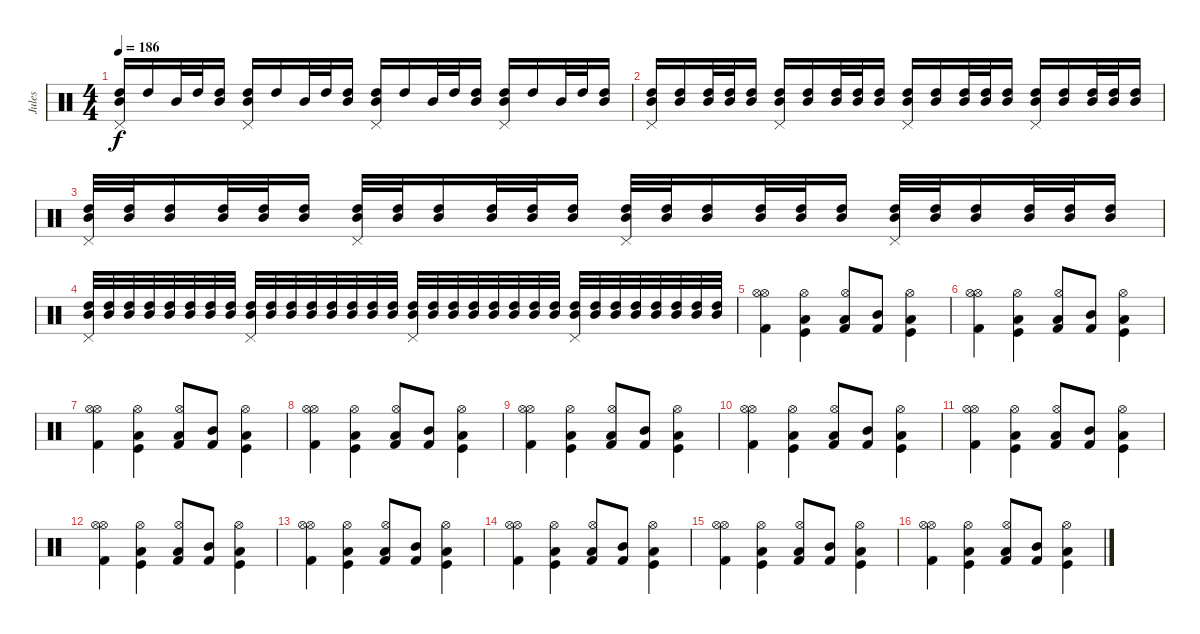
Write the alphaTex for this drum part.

\track ("Jules" "Jules") {instrument percussion}
\staff {score}
\articulation defaults
\ts (4 4)
\tempo 186
\clef neutral
\ks c
("Pedal Hi-Hat (hit)" "Mid Tom (hit)" "High Tom (hit)").16{dy f} "High Tom (hit)".16 "Mid Tom (hit)".32 "High Tom (hit)".32 ("High Tom (hit)" "Mid Tom (hit)").16 ("Pedal Hi-Hat (hit)" "Mid Tom (hit)" "High Tom (hit)").16 "High Tom (hit)".16 "Mid Tom (hit)".32 "High Tom (hit)".32 ("High Tom (hit)" "Mid Tom (hit)").16 ("Pedal Hi-Hat (hit)" "Mid Tom (hit)" "High Tom (hit)").16 "High Tom (hit)".16 "Mid Tom (hit)".32 "High Tom (hit)".32 ("High Tom (hit)" "Mid Tom (hit)").16 ("Pedal Hi-Hat (hit)" "Mid Tom (hit)" "High Tom (hit)").16 "High Tom (hit)".16 "Mid Tom (hit)".32 "High Tom (hit)".32 ("High Tom (hit)" "Mid Tom (hit)").16 |
("Pedal Hi-Hat (hit)" "Mid Tom (hit)" "High Tom (hit)").16 ("High Tom (hit)" "Mid Tom (hit)").16 ("Mid Tom (hit)" "High Tom (hit)").32 ("Mid Tom (hit)" "High Tom (hit)").32 ("High Tom (hit)" "Mid Tom (hit)").16 ("Pedal Hi-Hat (hit)" "Mid Tom (hit)" "High Tom (hit)").16 ("High Tom (hit)" "Mid Tom (hit)").16 ("Mid Tom (hit)" "High Tom (hit)").32 ("Mid Tom (hit)" "High Tom (hit)").32 ("High Tom (hit)" "Mid Tom (hit)").16 ("Pedal Hi-Hat (hit)" "Mid Tom (hit)" "High Tom (hit)").16 ("High Tom (hit)" "Mid Tom (hit)").16 ("Mid Tom (hit)" "High Tom (hit)").32 ("Mid Tom (hit)" "High Tom (hit)").32 ("High Tom (hit)" "Mid Tom (hit)").16 ("Pedal Hi-Hat (hit)" "Mid Tom (hit)" "High Tom (hit)").16 ("High Tom (hit)" "Mid Tom (hit)").16 ("Mid Tom (hit)" "High Tom (hit)").32 ("Mid Tom (hit)" "High Tom (hit)").32 ("High Tom (hit)" "Mid Tom (hit)").16 |
("Pedal Hi-Hat (hit)" "Mid Tom (hit)" "High Tom (hit)").32 ("Mid Tom (hit)" "High Tom (hit)").32 ("High Tom (hit)" "Mid Tom (hit)").16 ("Mid Tom (hit)" "High Tom (hit)").32 ("Mid Tom (hit)" "High Tom (hit)").32 ("High Tom (hit)" "Mid Tom (hit)").16 ("Pedal Hi-Hat (hit)" "Mid Tom (hit)" "High Tom (hit)").32 ("Mid Tom (hit)" "High Tom (hit)").32 ("High Tom (hit)" "Mid Tom (hit)").16 ("Mid Tom (hit)" "High Tom (hit)").32 ("Mid Tom (hit)" "High Tom (hit)").32 ("High Tom (hit)" "Mid Tom (hit)").16 ("Pedal Hi-Hat (hit)" "Mid Tom (hit)" "High Tom (hit)").32 ("Mid Tom (hit)" "High Tom (hit)").32 ("High Tom (hit)" "Mid Tom (hit)").16 ("Mid Tom (hit)" "High Tom (hit)").32 ("Mid Tom (hit)" "High Tom (hit)").32 ("High Tom (hit)" "Mid Tom (hit)").16 ("Pedal Hi-Hat (hit)" "Mid Tom (hit)" "High Tom (hit)").32 ("Mid Tom (hit)" "High Tom (hit)").32 ("High Tom (hit)" "Mid Tom (hit)").16 ("Mid Tom (hit)" "High Tom (hit)").32 ("Mid Tom (hit)" "High Tom (hit)").32 ("High Tom (hit)" "Mid Tom (hit)").16 |
("Pedal Hi-Hat (hit)" "Mid Tom (hit)" "High Tom (hit)").32 ("High Tom (hit)" "Mid Tom (hit)").32 ("Mid Tom (hit)" "High Tom (hit)").32 ("High Tom (hit)" "Mid Tom (hit)").32 ("Mid Tom (hit)" "High Tom (hit)").32 ("High Tom (hit)" "Mid Tom (hit)").32 ("Mid Tom (hit)" "High Tom (hit)").32 ("High Tom (hit)" "Mid Tom (hit)").32 ("Pedal Hi-Hat (hit)" "Mid Tom (hit)" "High Tom (hit)").32 ("High Tom (hit)" "Mid Tom (hit)").32 ("Mid Tom (hit)" "High Tom (hit)").32 ("High Tom (hit)" "Mid Tom (hit)").32 ("Mid Tom (hit)" "High Tom (hit)").32 ("High Tom (hit)" "Mid Tom (hit)").32 ("Mid Tom (hit)" "High Tom (hit)").32 ("High Tom (hit)" "Mid Tom (hit)").32 ("Pedal Hi-Hat (hit)" "Mid Tom (hit)" "High Tom (hit)").32 ("High Tom (hit)" "Mid Tom (hit)").32 ("Mid Tom (hit)" "High Tom (hit)").32 ("High Tom (hit)" "Mid Tom (hit)").32 ("Mid Tom (hit)" "High Tom (hit)").32 ("High Tom (hit)" "Mid Tom (hit)").32 ("Mid Tom (hit)" "High Tom (hit)").32 ("High Tom (hit)" "Mid Tom (hit)").32 ("Pedal Hi-Hat (hit)" "Mid Tom (hit)" "High Tom (hit)").32 ("High Tom (hit)" "Mid Tom (hit)").32 ("Mid Tom (hit)" "High Tom (hit)").32 ("High Tom (hit)" "Mid Tom (hit)").32 ("Mid Tom (hit)" "High Tom (hit)").32 ("High Tom (hit)" "Mid Tom (hit)").32 ("Mid Tom (hit)" "High Tom (hit)").32 ("High Tom (hit)" "Mid Tom (hit)").32 |
("Kick (hit) 2" "Hi-Hat (open)" "Hi-Hat (open)").4 ("Kick (hit)" "Low Floor Tom (hit)" "Hi-Hat (open)").4 ("Kick (hit) 2" "Hi-Hat (open)" "Low Floor Tom (hit)").8 ("Mid Tom (hit)" "Kick (hit) 2").8 ("Kick (hit)" "Low Floor Tom (hit)" "Hi-Hat (open)").4 |
("Kick (hit) 2" "Hi-Hat (open)" "Hi-Hat (open)").4 ("Kick (hit)" "Low Floor Tom (hit)" "Hi-Hat (open)").4 ("Kick (hit) 2" "Hi-Hat (open)" "Low Floor Tom (hit)").8 ("Mid Tom (hit)" "Kick (hit) 2").8 ("Kick (hit)" "Low Floor Tom (hit)" "Hi-Hat (open)").4 |
("Kick (hit) 2" "Hi-Hat (open)" "Hi-Hat (open)").4 ("Kick (hit)" "Low Floor Tom (hit)" "Hi-Hat (open)").4 ("Kick (hit) 2" "Hi-Hat (open)" "Low Floor Tom (hit)").8 ("Mid Tom (hit)" "Kick (hit) 2").8 ("Kick (hit)" "Low Floor Tom (hit)" "Hi-Hat (open)").4 |
("Kick (hit) 2" "Hi-Hat (open)" "Hi-Hat (open)").4 ("Kick (hit)" "Low Floor Tom (hit)" "Hi-Hat (open)").4 ("Kick (hit) 2" "Hi-Hat (open)" "Low Floor Tom (hit)").8 ("Mid Tom (hit)" "Kick (hit) 2").8 ("Kick (hit)" "Low Floor Tom (hit)" "Hi-Hat (open)").4 |
("Kick (hit) 2" "Hi-Hat (open)" "Hi-Hat (open)").4 ("Kick (hit)" "Low Floor Tom (hit)" "Hi-Hat (open)").4 ("Kick (hit) 2" "Hi-Hat (open)" "Low Floor Tom (hit)").8 ("Mid Tom (hit)" "Kick (hit) 2").8 ("Kick (hit)" "Low Floor Tom (hit)" "Hi-Hat (open)").4 |
("Kick (hit) 2" "Hi-Hat (open)" "Hi-Hat (open)").4 ("Kick (hit)" "Low Floor Tom (hit)" "Hi-Hat (open)").4 ("Kick (hit) 2" "Hi-Hat (open)" "Low Floor Tom (hit)").8 ("Mid Tom (hit)" "Kick (hit) 2").8 ("Kick (hit)" "Low Floor Tom (hit)" "Hi-Hat (open)").4 |
("Kick (hit) 2" "Hi-Hat (open)" "Hi-Hat (open)").4 ("Kick (hit)" "Low Floor Tom (hit)" "Hi-Hat (open)").4 ("Kick (hit) 2" "Hi-Hat (open)" "Low Floor Tom (hit)").8 ("Mid Tom (hit)" "Kick (hit) 2").8 ("Kick (hit)" "Low Floor Tom (hit)" "Hi-Hat (open)").4 |
("Kick (hit) 2" "Hi-Hat (open)" "Hi-Hat (open)").4 ("Kick (hit)" "Low Floor Tom (hit)" "Hi-Hat (open)").4 ("Kick (hit) 2" "Hi-Hat (open)" "Low Floor Tom (hit)").8 ("Mid Tom (hit)" "Kick (hit) 2").8 ("Kick (hit)" "Low Floor Tom (hit)" "Hi-Hat (open)").4 |
("Kick (hit) 2" "Hi-Hat (open)" "Hi-Hat (open)").4 ("Kick (hit)" "Low Floor Tom (hit)" "Hi-Hat (open)").4 ("Kick (hit) 2" "Hi-Hat (open)" "Low Floor Tom (hit)").8 ("Mid Tom (hit)" "Kick (hit) 2").8 ("Kick (hit)" "Low Floor Tom (hit)" "Hi-Hat (open)").4 |
("Kick (hit) 2" "Hi-Hat (open)" "Hi-Hat (open)").4 ("Kick (hit)" "Low Floor Tom (hit)" "Hi-Hat (open)").4 ("Kick (hit) 2" "Hi-Hat (open)" "Low Floor Tom (hit)").8 ("Mid Tom (hit)" "Kick (hit) 2").8 ("Kick (hit)" "Low Floor Tom (hit)" "Hi-Hat (open)").4 |
("Kick (hit) 2" "Hi-Hat (open)" "Hi-Hat (open)").4 ("Kick (hit)" "Low Floor Tom (hit)" "Hi-Hat (open)").4 ("Kick (hit) 2" "Hi-Hat (open)" "Low Floor Tom (hit)").8 ("Mid Tom (hit)" "Kick (hit) 2").8 ("Kick (hit)" "Low Floor Tom (hit)" "Hi-Hat (open)").4 |
("Kick (hit) 2" "Hi-Hat (open)" "Hi-Hat (open)").4 ("Kick (hit)" "Low Floor Tom (hit)" "Hi-Hat (open)").4 ("Kick (hit) 2" "Hi-Hat (open)" "Low Floor Tom (hit)").8 ("Mid Tom (hit)" "Kick (hit) 2").8 ("Kick (hit)" "Low Floor Tom (hit)" "Hi-Hat (open)").4
